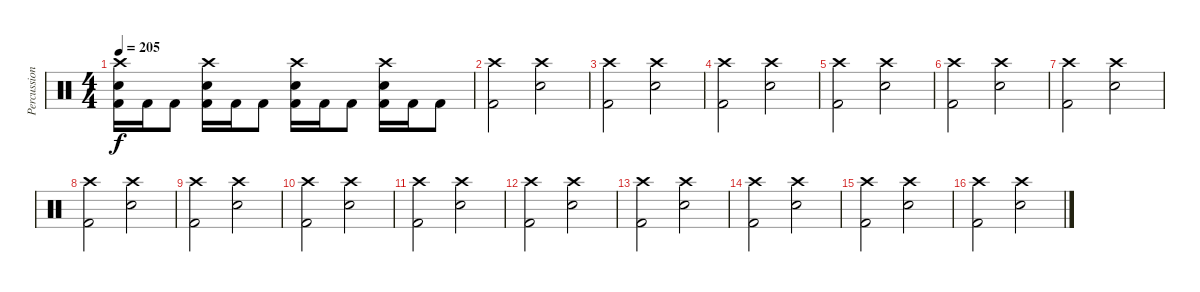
\track ("Percussion" "Percussion") {instrument percussion}
\staff {score}
\articulation defaults
\ts (4 4)
\tempo 205
\clef neutral
\ks c
("Crash high (hit)" "Electric Snare (hit)" "Kick (hit) 2").16{dy f} "Kick (hit) 2".16 "Kick (hit) 2".8 ("Crash high (hit)" "Electric Snare (hit)" "Kick (hit) 2").16 "Kick (hit) 2".16 "Kick (hit) 2".8 ("Crash high (hit)" "Electric Snare (hit)" "Kick (hit) 2").16 "Kick (hit) 2".16 "Kick (hit) 2".8 ("Crash high (hit)" "Electric Snare (hit)" "Kick (hit) 2").16 "Kick (hit) 2".16 "Kick (hit) 2".8 |
("Crash high (hit)" "Kick (hit) 2").2 ("Crash high (hit)" "Electric Snare (hit)").2 |
("Crash high (hit)" "Kick (hit) 2").2 ("Crash high (hit)" "Electric Snare (hit)").2 |
("Crash high (hit)" "Kick (hit) 2").2 ("Crash high (hit)" "Electric Snare (hit)").2 |
("Crash high (hit)" "Kick (hit) 2").2 ("Crash high (hit)" "Electric Snare (hit)").2 |
("Crash high (hit)" "Kick (hit) 2").2 ("Crash high (hit)" "Electric Snare (hit)").2 |
("Crash high (hit)" "Kick (hit) 2").2 ("Crash high (hit)" "Electric Snare (hit)").2 |
("Crash high (hit)" "Kick (hit) 2").2 ("Crash high (hit)" "Electric Snare (hit)").2 |
("Crash high (hit)" "Kick (hit) 2").2 ("Crash high (hit)" "Electric Snare (hit)").2 |
("Crash high (hit)" "Kick (hit) 2").2 ("Crash high (hit)" "Electric Snare (hit)").2 |
("Crash high (hit)" "Kick (hit) 2").2 ("Crash high (hit)" "Electric Snare (hit)").2 |
("Crash high (hit)" "Kick (hit) 2").2 ("Crash high (hit)" "Electric Snare (hit)").2 |
("Crash high (hit)" "Kick (hit) 2").2 ("Crash high (hit)" "Electric Snare (hit)").2 |
("Crash high (hit)" "Kick (hit) 2").2 ("Crash high (hit)" "Electric Snare (hit)").2 |
("Crash high (hit)" "Kick (hit) 2").2 ("Crash high (hit)" "Electric Snare (hit)").2 |
("Crash high (hit)" "Kick (hit) 2").2 ("Crash high (hit)" "Electric Snare (hit)").2
